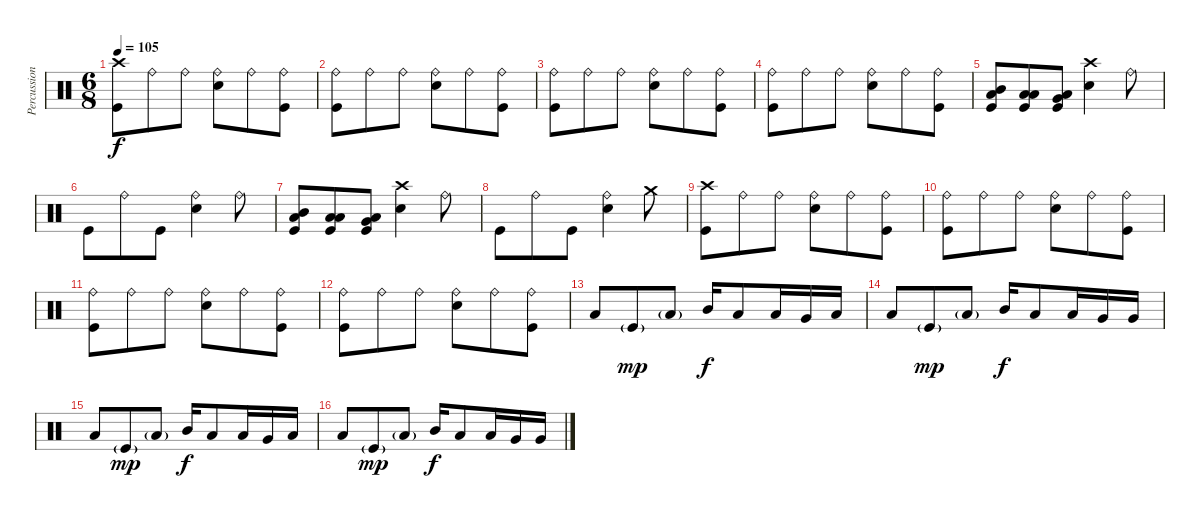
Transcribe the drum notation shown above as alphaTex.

\track ("Percussions" "Percussion") {instrument percussion}
\staff {score}
\articulation defaults
\ts (6 8)
\tempo 105
\clef neutral
\ks c
("Kick (hit)" "Crash high (hit)").8{dy f} "Ride (bell)".8 "Ride (bell)".8 ("Snare (hit) 2" "Ride (bell)").8 "Ride (bell)".8 ("Kick (hit)" "Ride (bell)").8 |
("Kick (hit)" "Ride (bell)").8 "Ride (bell)".8 "Ride (bell)".8 ("Snare (hit) 2" "Ride (bell)").8 "Ride (bell)".8 ("Kick (hit)" "Ride (bell)").8 |
("Kick (hit)" "Ride (bell)").8 "Ride (bell)".8 "Ride (bell)".8 ("Snare (hit) 2" "Ride (bell)").8 "Ride (bell)".8 ("Kick (hit)" "Ride (bell)").8 |
("Kick (hit)" "Ride (bell)").8 "Ride (bell)".8 "Ride (bell)".8 ("Snare (hit) 2" "Ride (bell)").8 "Ride (bell)".8 ("Kick (hit)" "Ride (bell)").8 |
("Low Floor Tom (hit)" "Kick (hit)" "Mid Tom (hit)").8 ("Low Floor Tom (hit)" "Kick (hit)" "Low Tom (hit)").8 ("Low Floor Tom (hit)" "Kick (hit)" "Very Low Tom (hit)").8 ("Crash high (hit)" "Snare (hit) 2").4 "Ride (bell)".8 |
"Kick (hit)".8 "Ride (bell)".8 "Kick (hit)".8 ("Snare (hit) 2" "Ride (bell)").4 "Ride (bell)".8 |
("Low Floor Tom (hit)" "Kick (hit)" "Mid Tom (hit)").8 ("Low Floor Tom (hit)" "Kick (hit)" "Low Tom (hit)").8 ("Low Floor Tom (hit)" "Kick (hit)" "Very Low Tom (hit)").8 ("Crash high (hit)" "Snare (hit) 2").4 "Ride (bell)".8 |
"Kick (hit)".8 "Ride (bell)".8 "Kick (hit)".8 ("Snare (hit) 2" "Ride (bell)").4 "Crash medium (hit)".8 |
("Kick (hit)" "Crash high (hit)").8 "Ride (bell)".8 "Ride (bell)".8 ("Snare (hit) 2" "Ride (bell)").8 "Ride (bell)".8 ("Kick (hit)" "Ride (bell)").8 |
("Kick (hit)" "Ride (bell)").8 "Ride (bell)".8 "Ride (bell)".8 ("Snare (hit) 2" "Ride (bell)").8 "Ride (bell)".8 ("Kick (hit)" "Ride (bell)").8 |
("Kick (hit)" "Ride (bell)").8 "Ride (bell)".8 "Ride (bell)".8 ("Snare (hit) 2" "Ride (bell)").8 "Ride (bell)".8 ("Kick (hit)" "Ride (bell)").8 |
("Kick (hit)" "Ride (bell)").8 "Ride (bell)".8 "Ride (bell)".8 ("Snare (hit) 2" "Ride (bell)").8 "Ride (bell)".8 ("Kick (hit)" "Ride (bell)").8 |
"Low Floor Tom (hit)".8 "Kick (hit)"{g}.8{dy mp} "Low Floor Tom (hit)"{g}.8 "Mid Tom (hit)".16{dy f} "Low Tom (hit)".8 "Low Tom (hit)".16 "Very Low Tom (hit)".16 "Low Tom (hit)".16 |
"Low Floor Tom (hit)".8 "Kick (hit)"{g}.8{dy mp} "Low Floor Tom (hit)"{g}.8 "Mid Tom (hit)".16{dy f} "Low Tom (hit)".8 "Low Tom (hit)".16 "Very Low Tom (hit)".16 "Very Low Tom (hit)".16 |
"Low Floor Tom (hit)".8 "Kick (hit)"{g}.8{dy mp} "Low Floor Tom (hit)"{g}.8 "Mid Tom (hit)".16{dy f} "Low Tom (hit)".8 "Low Tom (hit)".16 "Very Low Tom (hit)".16 "Low Tom (hit)".16 |
"Low Floor Tom (hit)".8 "Kick (hit)"{g}.8{dy mp} "Low Floor Tom (hit)"{g}.8 "Mid Tom (hit)".16{dy f} "Low Tom (hit)".8 "Low Tom (hit)".16 "Very Low Tom (hit)".16 "Very Low Tom (hit)".16
